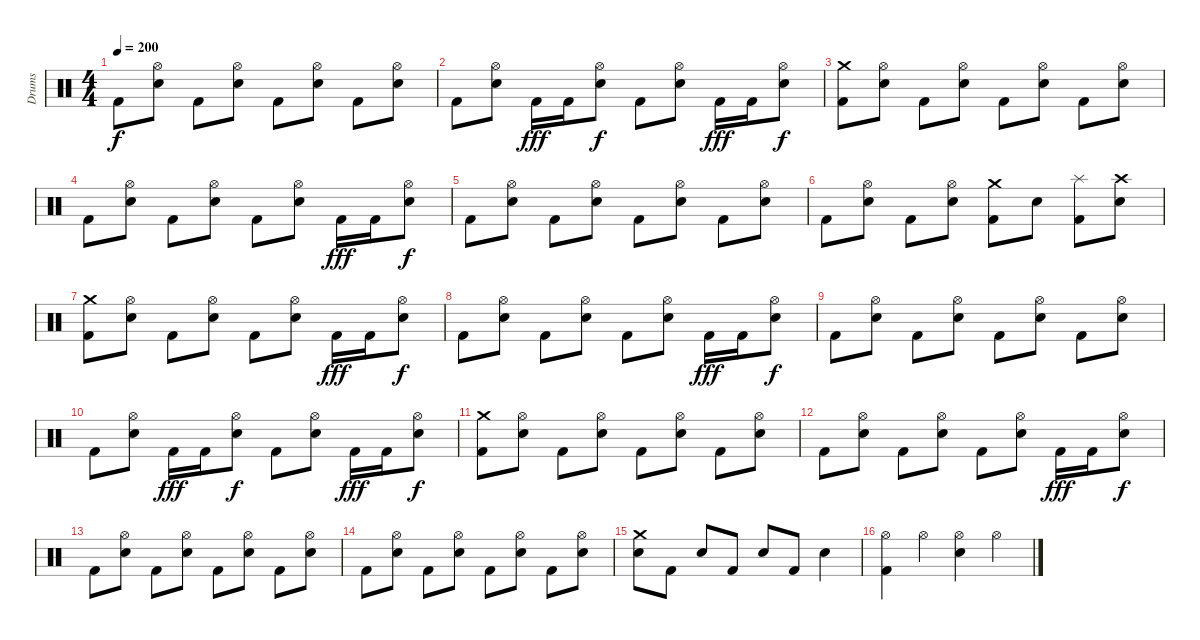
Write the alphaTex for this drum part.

\track ("Drums" "Drums") {instrument percussion}
\staff {score}
\articulation defaults
\ts (4 4)
\tempo 200
\clef neutral
\ks c "Kick (hit) 2".8{dy f}
("Hi-Hat (open)" "Snare (hit) 2").8 "Kick (hit) 2".8 ("Hi-Hat (open)" "Snare (hit) 2").8 "Kick (hit) 2".8 ("Hi-Hat (open)" "Snare (hit) 2").8 "Kick (hit) 2".8 ("Hi-Hat (open)" "Snare (hit) 2").8 |
"Kick (hit) 2".8 ("Hi-Hat (open)" "Snare (hit) 2").8 "Kick (hit) 2".16{dy fff} "Kick (hit) 2".16 ("Hi-Hat (open)" "Snare (hit) 2").8{dy f} "Kick (hit) 2".8 ("Hi-Hat (open)" "Snare (hit) 2").8 "Kick (hit) 2".16{dy fff} "Kick (hit) 2".16 ("Hi-Hat (open)" "Snare (hit) 2").8{dy f} |
("Crash medium (hit)" "Kick (hit) 2").8 ("Hi-Hat (open)" "Snare (hit) 2").8 "Kick (hit) 2".8 ("Hi-Hat (open)" "Snare (hit) 2").8 "Kick (hit) 2".8 ("Hi-Hat (open)" "Snare (hit) 2").8 "Kick (hit) 2".8 ("Hi-Hat (open)" "Snare (hit) 2").8 |
"Kick (hit) 2".8 ("Hi-Hat (open)" "Snare (hit) 2").8 "Kick (hit) 2".8 ("Hi-Hat (open)" "Snare (hit) 2").8 "Kick (hit) 2".8 ("Hi-Hat (open)" "Snare (hit) 2").8 "Kick (hit) 2".16{dy fff} "Kick (hit) 2".16 ("Hi-Hat (open)" "Snare (hit) 2").8{dy f} |
"Kick (hit) 2".8 ("Hi-Hat (open)" "Snare (hit) 2").8 "Kick (hit) 2".8 ("Hi-Hat (open)" "Snare (hit) 2").8 "Kick (hit) 2".8 ("Hi-Hat (open)" "Snare (hit) 2").8 "Kick (hit) 2".8 ("Hi-Hat (open)" "Snare (hit) 2").8 |
"Kick (hit) 2".8 ("Hi-Hat (open)" "Snare (hit) 2").8 "Kick (hit) 2".8 ("Hi-Hat (open)" "Snare (hit) 2").8 ("Crash medium (hit)" "Kick (hit) 2").8 "Snare (hit) 2".8 ("Splash (hit)" "Kick (hit) 2").8 ("Crash high (hit)" "Snare (hit) 2").8 |
("Crash medium (hit)" "Kick (hit) 2").8 ("Hi-Hat (open)" "Snare (hit) 2").8 "Kick (hit) 2".8 ("Hi-Hat (open)" "Snare (hit) 2").8 "Kick (hit) 2".8 ("Hi-Hat (open)" "Snare (hit) 2").8 "Kick (hit) 2".16{dy fff} "Kick (hit) 2".16 ("Hi-Hat (open)" "Snare (hit) 2").8{dy f} |
"Kick (hit) 2".8 ("Hi-Hat (open)" "Snare (hit) 2").8 "Kick (hit) 2".8 ("Hi-Hat (open)" "Snare (hit) 2").8 "Kick (hit) 2".8 ("Hi-Hat (open)" "Snare (hit) 2").8 "Kick (hit) 2".16{dy fff} "Kick (hit) 2".16 ("Hi-Hat (open)" "Snare (hit) 2").8{dy f} |
"Kick (hit) 2".8 ("Hi-Hat (open)" "Snare (hit) 2").8 "Kick (hit) 2".8 ("Hi-Hat (open)" "Snare (hit) 2").8 "Kick (hit) 2".8 ("Hi-Hat (open)" "Snare (hit) 2").8 "Kick (hit) 2".8 ("Hi-Hat (open)" "Snare (hit) 2").8 |
"Kick (hit) 2".8 ("Hi-Hat (open)" "Snare (hit) 2").8 "Kick (hit) 2".16{dy fff} "Kick (hit) 2".16 ("Hi-Hat (open)" "Snare (hit) 2").8{dy f} "Kick (hit) 2".8 ("Hi-Hat (open)" "Snare (hit) 2").8 "Kick (hit) 2".16{dy fff} "Kick (hit) 2".16 ("Hi-Hat (open)" "Snare (hit) 2").8{dy f} |
("Crash medium (hit)" "Kick (hit) 2").8 ("Hi-Hat (open)" "Snare (hit) 2").8 "Kick (hit) 2".8 ("Hi-Hat (open)" "Snare (hit) 2").8 "Kick (hit) 2".8 ("Hi-Hat (open)" "Snare (hit) 2").8 "Kick (hit) 2".8 ("Hi-Hat (open)" "Snare (hit) 2").8 |
"Kick (hit) 2".8 ("Hi-Hat (open)" "Snare (hit) 2").8 "Kick (hit) 2".8 ("Hi-Hat (open)" "Snare (hit) 2").8 "Kick (hit) 2".8 ("Hi-Hat (open)" "Snare (hit) 2").8 "Kick (hit) 2".16{dy fff} "Kick (hit) 2".16 ("Hi-Hat (open)" "Snare (hit) 2").8{dy f} |
"Kick (hit) 2".8 ("Hi-Hat (open)" "Snare (hit) 2").8 "Kick (hit) 2".8 ("Hi-Hat (open)" "Snare (hit) 2").8 "Kick (hit) 2".8 ("Hi-Hat (open)" "Snare (hit) 2").8 "Kick (hit) 2".8 ("Hi-Hat (open)" "Snare (hit) 2").8 |
"Kick (hit) 2".8 ("Hi-Hat (open)" "Snare (hit) 2").8 "Kick (hit) 2".8 ("Hi-Hat (open)" "Snare (hit) 2").8 "Kick (hit) 2".8 ("Hi-Hat (open)" "Snare (hit) 2").8 "Kick (hit) 2".8 ("Hi-Hat (open)" "Snare (hit) 2").8 |
("Crash medium (hit)" "Snare (hit) 2").8 "Kick (hit) 2".8 "Snare (hit) 2".8 "Kick (hit) 2".8 "Snare (hit) 2".8 "Kick (hit) 2".8 "Snare (hit) 2".4 |
("Hi-Hat (open)" "Kick (hit) 2").4 "Hi-Hat (open)".4 ("Hi-Hat (open)" "Snare (hit) 2").4 "Hi-Hat (open)".4
